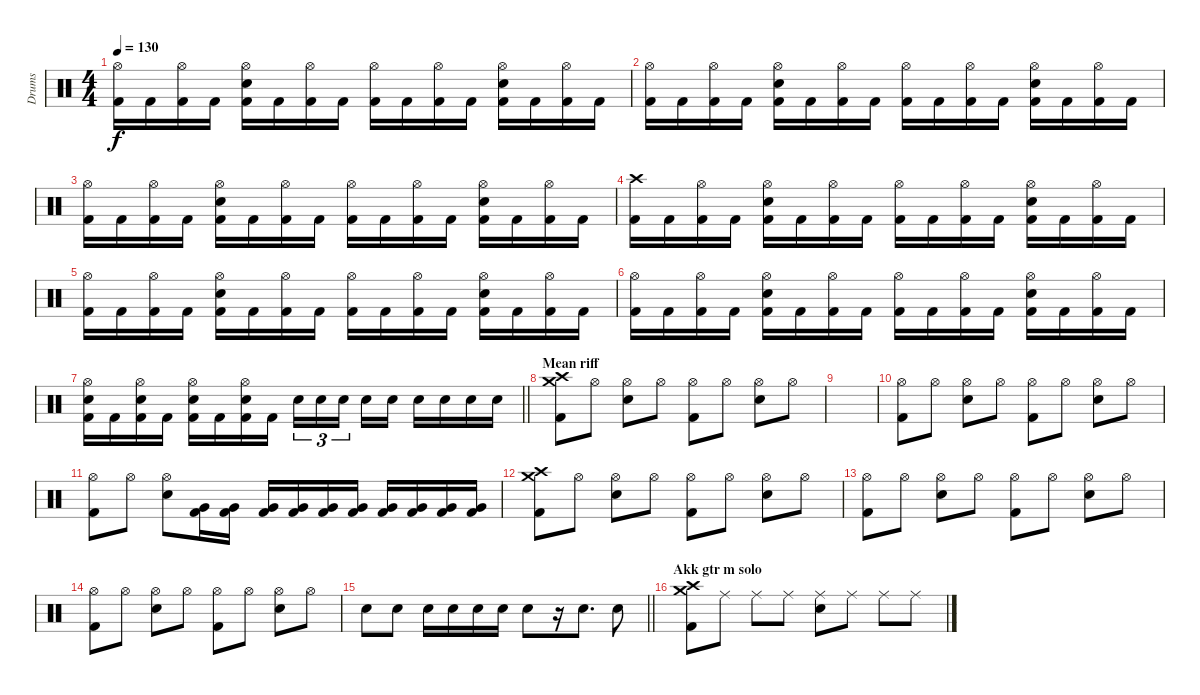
\track ("Drums" "Drums") {instrument percussion}
\staff {score}
\articulation defaults
\ts (4 4)
\tempo 130
\clef neutral
\ks c
("Hi-Hat (open)" "Kick (hit) 2").16{dy f} "Kick (hit) 2".16 ("Hi-Hat (open)" "Kick (hit) 2").16 "Kick (hit) 2".16 ("Hi-Hat (open)" "Electric Snare (hit)" "Kick (hit) 2").16 "Kick (hit) 2".16 ("Hi-Hat (open)" "Kick (hit) 2").16 "Kick (hit) 2".16 ("Hi-Hat (open)" "Kick (hit) 2").16 "Kick (hit) 2".16 ("Hi-Hat (open)" "Kick (hit) 2").16 "Kick (hit) 2".16 ("Hi-Hat (open)" "Electric Snare (hit)" "Kick (hit) 2").16 "Kick (hit) 2".16 ("Hi-Hat (open)" "Kick (hit) 2").16 "Kick (hit) 2".16 |
("Hi-Hat (open)" "Kick (hit) 2").16 "Kick (hit) 2".16 ("Hi-Hat (open)" "Kick (hit) 2").16 "Kick (hit) 2".16 ("Hi-Hat (open)" "Electric Snare (hit)" "Kick (hit) 2").16 "Kick (hit) 2".16 ("Hi-Hat (open)" "Kick (hit) 2").16 "Kick (hit) 2".16 ("Hi-Hat (open)" "Kick (hit) 2").16 "Kick (hit) 2".16 ("Hi-Hat (open)" "Kick (hit) 2").16 "Kick (hit) 2".16 ("Hi-Hat (open)" "Electric Snare (hit)" "Kick (hit) 2").16 "Kick (hit) 2".16 ("Hi-Hat (open)" "Kick (hit) 2").16 "Kick (hit) 2".16 |
("Hi-Hat (open)" "Kick (hit) 2").16 "Kick (hit) 2".16 ("Hi-Hat (open)" "Kick (hit) 2").16 "Kick (hit) 2".16 ("Hi-Hat (open)" "Electric Snare (hit)" "Kick (hit) 2").16 "Kick (hit) 2".16 ("Hi-Hat (open)" "Kick (hit) 2").16 "Kick (hit) 2".16 ("Hi-Hat (open)" "Kick (hit) 2").16 "Kick (hit) 2".16 ("Hi-Hat (open)" "Kick (hit) 2").16 "Kick (hit) 2".16 ("Hi-Hat (open)" "Electric Snare (hit)" "Kick (hit) 2").16 "Kick (hit) 2".16 ("Hi-Hat (open)" "Kick (hit) 2").16 "Kick (hit) 2".16 |
("Crash high (hit)" "Kick (hit) 2").16 "Kick (hit) 2".16 ("Hi-Hat (open)" "Kick (hit) 2").16 "Kick (hit) 2".16 ("Hi-Hat (open)" "Electric Snare (hit)" "Kick (hit) 2").16 "Kick (hit) 2".16 ("Hi-Hat (open)" "Kick (hit) 2").16 "Kick (hit) 2".16 ("Hi-Hat (open)" "Kick (hit) 2").16 "Kick (hit) 2".16 ("Hi-Hat (open)" "Kick (hit) 2").16 "Kick (hit) 2".16 ("Hi-Hat (open)" "Electric Snare (hit)" "Kick (hit) 2").16 "Kick (hit) 2".16 ("Hi-Hat (open)" "Kick (hit) 2").16 "Kick (hit) 2".16 |
("Hi-Hat (open)" "Kick (hit) 2").16 "Kick (hit) 2".16 ("Hi-Hat (open)" "Kick (hit) 2").16 "Kick (hit) 2".16 ("Hi-Hat (open)" "Electric Snare (hit)" "Kick (hit) 2").16 "Kick (hit) 2".16 ("Hi-Hat (open)" "Kick (hit) 2").16 "Kick (hit) 2".16 ("Hi-Hat (open)" "Kick (hit) 2").16 "Kick (hit) 2".16 ("Hi-Hat (open)" "Kick (hit) 2").16 "Kick (hit) 2".16 ("Hi-Hat (open)" "Electric Snare (hit)" "Kick (hit) 2").16 "Kick (hit) 2".16 ("Hi-Hat (open)" "Kick (hit) 2").16 "Kick (hit) 2".16 |
("Hi-Hat (open)" "Kick (hit) 2").16 "Kick (hit) 2".16 ("Hi-Hat (open)" "Kick (hit) 2").16 "Kick (hit) 2".16 ("Hi-Hat (open)" "Electric Snare (hit)" "Kick (hit) 2").16 "Kick (hit) 2".16 ("Hi-Hat (open)" "Kick (hit) 2").16 "Kick (hit) 2".16 ("Hi-Hat (open)" "Kick (hit) 2").16 "Kick (hit) 2".16 ("Hi-Hat (open)" "Kick (hit) 2").16 "Kick (hit) 2".16 ("Hi-Hat (open)" "Electric Snare (hit)" "Kick (hit) 2").16 "Kick (hit) 2".16 ("Hi-Hat (open)" "Kick (hit) 2").16 "Kick (hit) 2".16 |
\barLineRight lightlight
("Hi-Hat (open)" "Electric Snare (hit)" "Kick (hit) 2").16 "Kick (hit) 2".16 ("Hi-Hat (open)" "Electric Snare (hit)" "Kick (hit) 2").16 "Kick (hit) 2".16 ("Hi-Hat (open)" "Electric Snare (hit)" "Kick (hit) 2").16 "Kick (hit) 2".16 ("Hi-Hat (open)" "Electric Snare (hit)" "Kick (hit) 2").16 "Kick (hit) 2".16 "Electric Snare (hit)".16{tu (3 2)} "Electric Snare (hit)".16{tu (3 2)} "Electric Snare (hit)".16{tu (3 2) beam splitsecondary} "Electric Snare (hit)".16 "Electric Snare (hit)".16 "Electric Snare (hit)".16 "Electric Snare (hit)".16 "Electric Snare (hit)".16 "Electric Snare (hit)".16 |
\section ("" "Mean riff")
("Crash medium (hit)" "Crash high (hit)" "Kick (hit) 2").8 "Hi-Hat (open)".8 ("Hi-Hat (open)" "Snare (hit) 2").8 "Hi-Hat (open)".8 ("Hi-Hat (open)" "Kick (hit) 2").8 "Hi-Hat (open)".8 ("Hi-Hat (open)" "Snare (hit) 2").8 "Hi-Hat (open)".8 |
|
("Hi-Hat (open)" "Kick (hit) 2").8 "Hi-Hat (open)".8 ("Hi-Hat (open)" "Snare (hit) 2").8 "Hi-Hat (open)".8 ("Hi-Hat (open)" "Kick (hit) 2").8 "Hi-Hat (open)".8 ("Hi-Hat (open)" "Snare (hit) 2").8 "Hi-Hat (open)".8 |
("Hi-Hat (open)" "Kick (hit) 2").8 "Hi-Hat (open)".8 ("Hi-Hat (open)" "Snare (hit) 2").8 ("Very Low Tom (hit)" "Kick (hit) 2").16 ("Very Low Tom (hit)" "Kick (hit) 2").16 ("Very Low Tom (hit)" "Kick (hit) 2").16 ("Very Low Tom (hit)" "Kick (hit) 2").16 ("Very Low Tom (hit)" "Kick (hit) 2").16 ("Very Low Tom (hit)" "Kick (hit) 2").16 ("Very Low Tom (hit)" "Kick (hit) 2").16 ("Very Low Tom (hit)" "Kick (hit) 2").16 ("Very Low Tom (hit)" "Kick (hit) 2").16 ("Very Low Tom (hit)" "Kick (hit) 2").16 |
("Crash medium (hit)" "Crash high (hit)" "Kick (hit) 2").8 "Hi-Hat (open)".8 ("Hi-Hat (open)" "Snare (hit) 2").8 "Hi-Hat (open)".8 ("Hi-Hat (open)" "Kick (hit) 2").8 "Hi-Hat (open)".8 ("Hi-Hat (open)" "Snare (hit) 2").8 "Hi-Hat (open)".8 |
("Hi-Hat (open)" "Kick (hit) 2").8 "Hi-Hat (open)".8 ("Hi-Hat (open)" "Snare (hit) 2").8 "Hi-Hat (open)".8 ("Hi-Hat (open)" "Kick (hit) 2").8 "Hi-Hat (open)".8 ("Hi-Hat (open)" "Snare (hit) 2").8 "Hi-Hat (open)".8 |
("Hi-Hat (open)" "Kick (hit) 2").8 "Hi-Hat (open)".8 ("Hi-Hat (open)" "Snare (hit) 2").8 "Hi-Hat (open)".8 ("Hi-Hat (open)" "Kick (hit) 2").8 "Hi-Hat (open)".8 ("Hi-Hat (open)" "Snare (hit) 2").8 "Hi-Hat (open)".8 |
\barLineRight lightlight "Electric Snare (hit)".8 "Electric Snare (hit)".8 "Electric Snare (hit)".16 "Electric Snare (hit)".16 "Electric Snare (hit)".16 "Electric Snare (hit)".16 "Electric Snare (hit)".8
r.16 "Electric Snare (hit)".8{d} "Electric Snare (hit)".8 |
\section ("" "Akk gtr m solo")
("Crash medium (hit)" "Crash high (hit)" "Kick (hit) 2").8 "Ride (middle)".8 "Ride (middle)".8 "Ride (middle)".8 ("Ride (middle)" "Snare (hit) 2").8 "Ride (middle)".8 "Ride (middle)".8 "Ride (middle)".8
